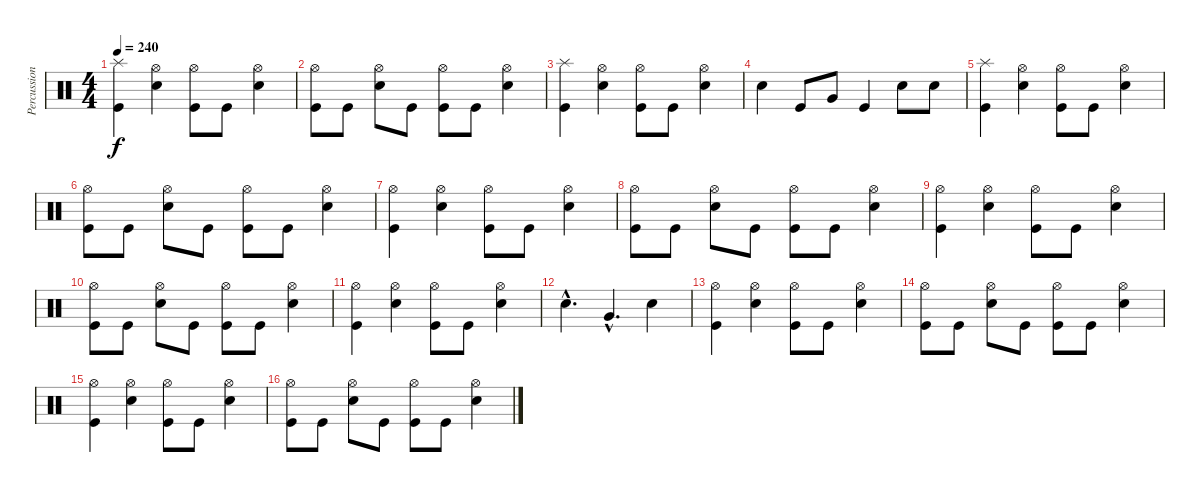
\track ("Percussions" "Percussion") {instrument percussion}
\staff {score}
\articulation defaults
\ts (4 4)
\tempo 240
\clef neutral
\ks c
("Kick (hit)" "Splash (hit)").4{dy f} ("Electric Snare (hit)" "Hi-Hat (open)").4 ("Kick (hit)" "Hi-Hat (open)").8 "Kick (hit)".8 ("Electric Snare (hit)" "Hi-Hat (open)").4 |
("Kick (hit)" "Hi-Hat (open)").8 "Kick (hit)".8 ("Electric Snare (hit)" "Hi-Hat (open)").8 "Kick (hit)".8 ("Kick (hit)" "Hi-Hat (open)").8 "Kick (hit)".8 ("Electric Snare (hit)" "Hi-Hat (open)").4 |
("Kick (hit)" "Splash (hit)").4 ("Electric Snare (hit)" "Hi-Hat (open)").4 ("Kick (hit)" "Hi-Hat (open)").8 "Kick (hit)".8 ("Electric Snare (hit)" "Hi-Hat (open)").4 |
"Electric Snare (hit)".4 "Kick (hit)".8 "Very Low Tom (hit)".8 "Kick (hit)".4 "Electric Snare (hit)".8 "Electric Snare (hit)".8 |
("Kick (hit)" "Splash (hit)").4 ("Electric Snare (hit)" "Hi-Hat (open)").4 ("Kick (hit)" "Hi-Hat (open)").8 "Kick (hit)".8 ("Electric Snare (hit)" "Hi-Hat (open)").4 |
("Kick (hit)" "Hi-Hat (open)").8 "Kick (hit)".8 ("Electric Snare (hit)" "Hi-Hat (open)").8 "Kick (hit)".8 ("Kick (hit)" "Hi-Hat (open)").8 "Kick (hit)".8 ("Electric Snare (hit)" "Hi-Hat (open)").4 |
("Kick (hit)" "Hi-Hat (open)").4 ("Electric Snare (hit)" "Hi-Hat (open)").4 ("Kick (hit)" "Hi-Hat (open)").8 "Kick (hit)".8 ("Electric Snare (hit)" "Hi-Hat (open)").4 |
("Kick (hit)" "Hi-Hat (open)").8 "Kick (hit)".8 ("Electric Snare (hit)" "Hi-Hat (open)").8 "Kick (hit)".8 ("Kick (hit)" "Hi-Hat (open)").8 "Kick (hit)".8 ("Electric Snare (hit)" "Hi-Hat (open)").4 |
("Kick (hit)" "Hi-Hat (open)").4 ("Electric Snare (hit)" "Hi-Hat (open)").4 ("Kick (hit)" "Hi-Hat (open)").8 "Kick (hit)".8 ("Electric Snare (hit)" "Hi-Hat (open)").4 |
("Kick (hit)" "Hi-Hat (open)").8 "Kick (hit)".8 ("Electric Snare (hit)" "Hi-Hat (open)").8 "Kick (hit)".8 ("Kick (hit)" "Hi-Hat (open)").8 "Kick (hit)".8 ("Electric Snare (hit)" "Hi-Hat (open)").4 |
("Kick (hit)" "Hi-Hat (open)").4 ("Electric Snare (hit)" "Hi-Hat (open)").4 ("Kick (hit)" "Hi-Hat (open)").8 "Kick (hit)".8 ("Electric Snare (hit)" "Hi-Hat (open)").4 |
"Electric Snare (hit)"{hac}.4{d} "Very Low Tom (hit)"{hac}.4{d} "Electric Snare (hit)".4 |
("Kick (hit)" "Hi-Hat (open)").4 ("Electric Snare (hit)" "Hi-Hat (open)").4 ("Kick (hit)" "Hi-Hat (open)").8 "Kick (hit)".8 ("Electric Snare (hit)" "Hi-Hat (open)").4 |
("Kick (hit)" "Hi-Hat (open)").8 "Kick (hit)".8 ("Electric Snare (hit)" "Hi-Hat (open)").8 "Kick (hit)".8 ("Kick (hit)" "Hi-Hat (open)").8 "Kick (hit)".8 ("Electric Snare (hit)" "Hi-Hat (open)").4 |
("Kick (hit)" "Hi-Hat (open)").4 ("Electric Snare (hit)" "Hi-Hat (open)").4 ("Kick (hit)" "Hi-Hat (open)").8 "Kick (hit)".8 ("Electric Snare (hit)" "Hi-Hat (open)").4 |
("Kick (hit)" "Hi-Hat (open)").8 "Kick (hit)".8 ("Electric Snare (hit)" "Hi-Hat (open)").8 "Kick (hit)".8 ("Kick (hit)" "Hi-Hat (open)").8 "Kick (hit)".8 ("Electric Snare (hit)" "Hi-Hat (open)").4
